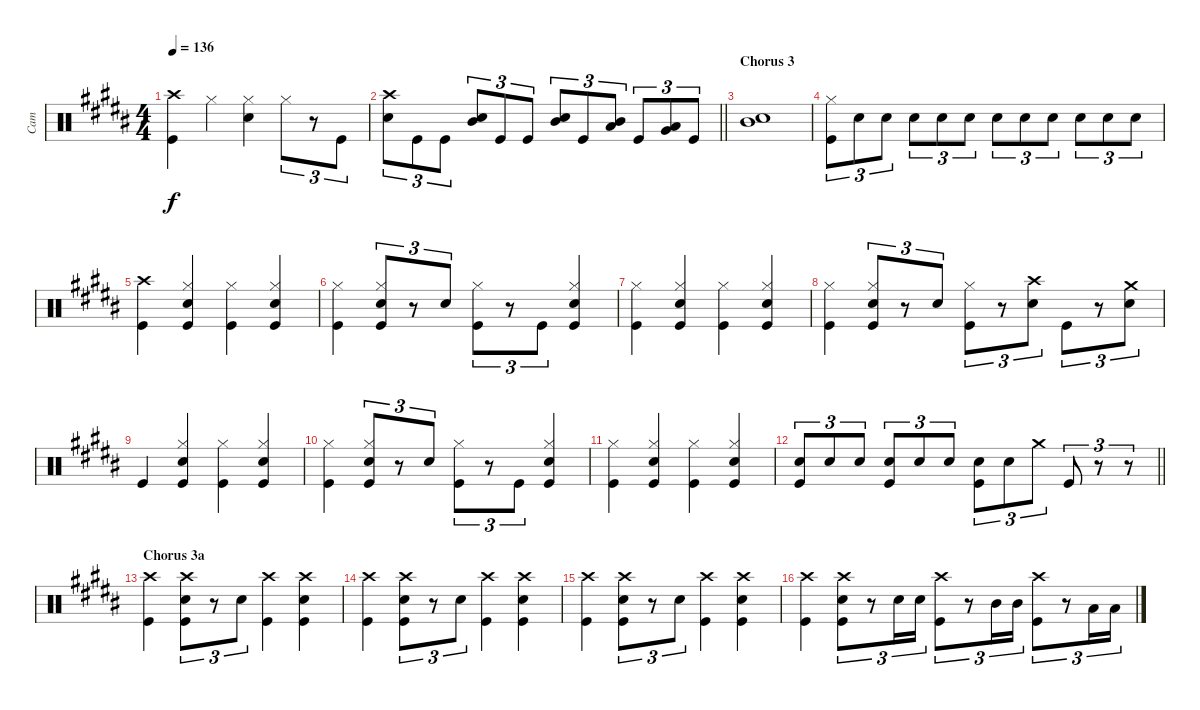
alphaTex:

\track ("Cam" "Cam") {instrument percussion}
\staff {score}
\articulation defaults
\ts (4 4)
\tempo 136
\clef neutral
\ks b
("Crash high (hit)" "Kick (hit)").4{dy f} "Hi-Hat (closed)".4 ("Snare (hit) 2" "Hi-Hat (closed)").4 "Hi-Hat (closed)".8{tu (3 2)} r.8{tu (3 2)} "Kick (hit)".8{tu (3 2)} |
\barLineRight lightlight
("Crash high (hit)" "Snare (hit) 2").8{tu (3 2)} "Kick (hit)".8{tu (3 2)} "Kick (hit)".8{tu (3 2)} ("Mid Tom (hit)" "Snare (hit) 2").8{tu (3 2)} "Kick (hit)".8{tu (3 2)} "Kick (hit)".8{tu (3 2)} ("Mid Tom (hit)" "Snare (hit) 2").8{tu (3 2)} "Kick (hit)".8{tu (3 2)} ("Low Tom (hit)" "Mid Tom (hit)").8{tu (3 2)} "Kick (hit)".8{tu (3 2)} ("Very Low Tom (hit)" "Low Tom (hit)").8{tu (3 2)} "Kick (hit)".8{tu (3 2)} |
\section ("" "Chorus 3")
("Mid Tom (hit)" "Snare (hit) 2").1 |
("Hi-Hat (closed)" "Kick (hit)").8{tu (3 2)} "Snare (hit) 2".8{tu (3 2)} "Snare (hit) 2".8{tu (3 2)} "Snare (hit) 2".8{tu (3 2)} "Snare (hit) 2".8{tu (3 2)} "Snare (hit) 2".8{tu (3 2)} "Snare (hit) 2".8{tu (3 2)} "Snare (hit) 2".8{tu (3 2)} "Snare (hit) 2".8{tu (3 2)} "Snare (hit) 2".8{tu (3 2)} "Snare (hit) 2".8{tu (3 2)} "Snare (hit) 2".8{tu (3 2)} |
("Crash high (hit)" "Kick (hit)").4 ("Snare (hit) 2" "Hi-Hat (closed)" "Kick (hit)").4 ("Hi-Hat (closed)" "Kick (hit)").4 ("Snare (hit) 2" "Hi-Hat (closed)" "Kick (hit)").4 |
("Hi-Hat (closed)" "Kick (hit)").4 ("Snare (hit) 2" "Hi-Hat (closed)" "Kick (hit)").8{tu (3 2)} r.8{tu (3 2)} "Snare (hit) 2".8{tu (3 2)} ("Hi-Hat (closed)" "Kick (hit)").8{tu (3 2)} r.8{tu (3 2)} "Kick (hit)".8{tu (3 2)} ("Snare (hit) 2" "Hi-Hat (closed)" "Kick (hit)").4 |
("Hi-Hat (closed)" "Kick (hit)").4 ("Snare (hit) 2" "Hi-Hat (closed)" "Kick (hit)").4 ("Hi-Hat (closed)" "Kick (hit)").4 ("Snare (hit) 2" "Hi-Hat (closed)" "Kick (hit)").4 |
("Hi-Hat (closed)" "Kick (hit)").4 ("Snare (hit) 2" "Hi-Hat (closed)" "Kick (hit)").8{tu (3 2)} r.8{tu (3 2)} "Snare (hit) 2".8{tu (3 2)} ("Hi-Hat (closed)" "Kick (hit)").8{tu (3 2)} r.8{tu (3 2)} ("Crash high (hit)" "Snare (hit) 2").8{tu (3 2)} "Kick (hit)".8{tu (3 2)} r.8{tu (3 2)} ("Crash medium (hit)" "Snare (hit) 2").8{tu (3 2)} |
"Kick (hit)".4 ("Snare (hit) 2" "Hi-Hat (closed)" "Kick (hit)").4 ("Hi-Hat (closed)" "Kick (hit)").4 ("Snare (hit) 2" "Hi-Hat (closed)" "Kick (hit)").4 |
("Hi-Hat (closed)" "Kick (hit)").4 ("Snare (hit) 2" "Hi-Hat (closed)" "Kick (hit)").8{tu (3 2)} r.8{tu (3 2)} "Snare (hit) 2".8{tu (3 2)} ("Hi-Hat (closed)" "Kick (hit)").8{tu (3 2)} r.8{tu (3 2)} "Kick (hit)".8{tu (3 2)} ("Snare (hit) 2" "Hi-Hat (closed)" "Kick (hit)").4 |
("Hi-Hat (closed)" "Kick (hit)").4 ("Snare (hit) 2" "Hi-Hat (closed)" "Kick (hit)").4 ("Hi-Hat (closed)" "Kick (hit)").4 ("Snare (hit) 2" "Hi-Hat (closed)" "Kick (hit)").4 |
\barLineRight lightlight
("Snare (hit) 2" "Kick (hit)").8{tu (3 2)} "Snare (hit) 2".8{tu (3 2)} "Snare (hit) 2".8{tu (3 2)} ("Snare (hit) 2" "Kick (hit)").8{tu (3 2)} "Snare (hit) 2".8{tu (3 2)} "Snare (hit) 2".8{tu (3 2)} ("Snare (hit) 2" "Kick (hit)").8{tu (3 2)} "Snare (hit) 2".8{tu (3 2)} "Crash medium (hit)".8{tu (3 2)} "Kick (hit)".8{tu (3 2)} r.8{tu (3 2)} r.8{tu (3 2)} |
\section ("" "Chorus 3a")
("Crash high (hit)" "Kick (hit)").4 ("Crash high (hit)" "Snare (hit) 2" "Kick (hit)").8{tu (3 2)} r.8{tu (3 2)} "Snare (hit) 2".8{tu (3 2)} ("Crash high (hit)" "Kick (hit)").4 ("Crash high (hit)" "Snare (hit) 2" "Kick (hit)").4 |
("Crash high (hit)" "Kick (hit)").4 ("Crash high (hit)" "Snare (hit) 2" "Kick (hit)").8{tu (3 2)} r.8{tu (3 2)} "Snare (hit) 2".8{tu (3 2)} ("Crash high (hit)" "Kick (hit)").4 ("Crash high (hit)" "Snare (hit) 2" "Kick (hit)").4 |
("Crash high (hit)" "Kick (hit)").4 ("Crash high (hit)" "Snare (hit) 2" "Kick (hit)").8{tu (3 2)} r.8{tu (3 2)} "Snare (hit) 2".8{tu (3 2)} ("Crash high (hit)" "Kick (hit)").4 ("Crash high (hit)" "Snare (hit) 2" "Kick (hit)").4 |
("Crash high (hit)" "Kick (hit)").4 ("Crash high (hit)" "Snare (hit) 2" "Kick (hit)").8{tu (3 2)} r.8{tu (3 2)} "Snare (hit) 2".16{tu (3 2)} "Snare (hit) 2".16{tu (3 2)} ("Crash high (hit)" "Kick (hit)").8{tu (3 2)} r.8{tu (3 2)} "Mid Tom (hit)".16{tu (3 2)} "Mid Tom (hit)".16{tu (3 2)} ("Crash high (hit)" "Kick (hit)").8{tu (3 2)} r.8{tu (3 2)} "Low Tom (hit)".16{tu (3 2)} "Low Tom (hit)".16{tu (3 2)}
